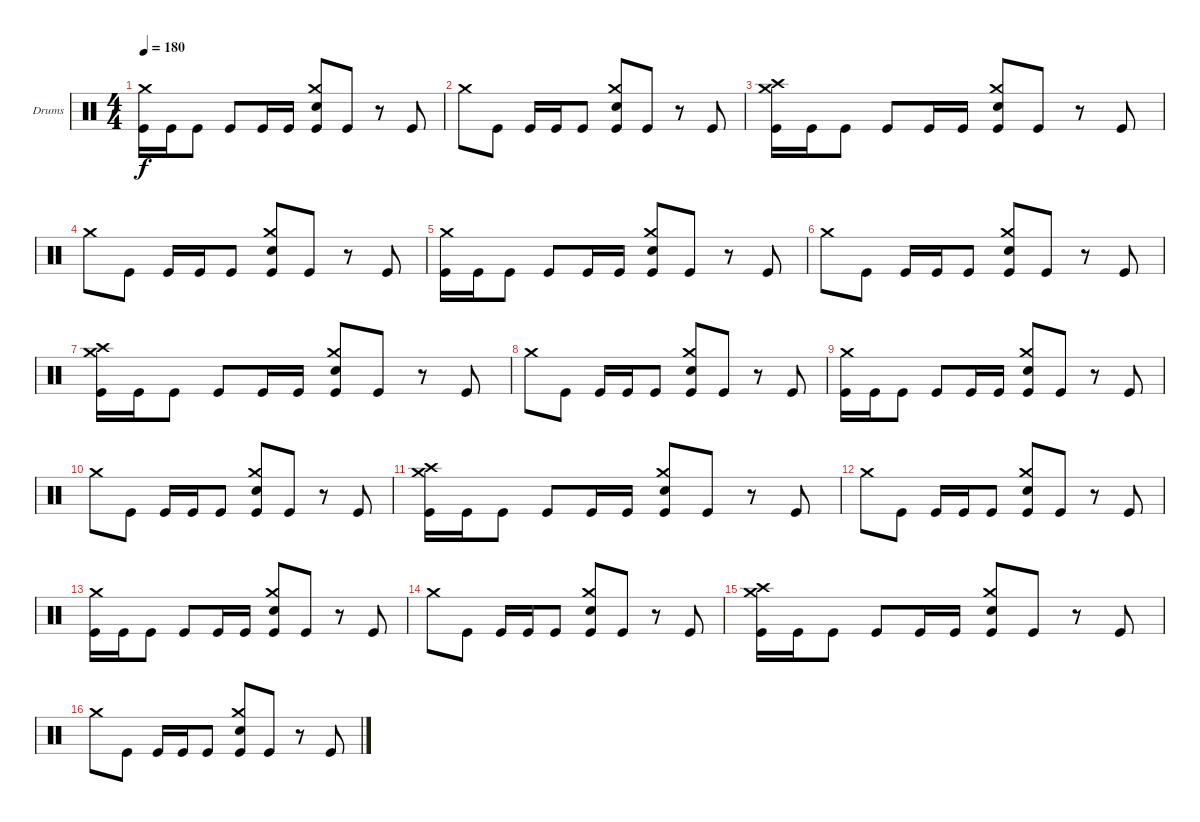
\bracketExtendMode groupsimilarinstruments
\firstSystemTrackNameOrientation horizontal
\otherSystemsTrackNameOrientation horizontal
\track ("Drumkit" "Drums") {instrument percussion}
\staff {score}
\articulation defaults
\ts (4 4)
\tempo 180
\clef neutral
\ks c
("Kick (hit)" "Crash medium (hit)").16{dy f} "Kick (hit)".16 "Kick (hit)".8 "Kick (hit)".8 "Kick (hit)".16 "Kick (hit)".16 ("Kick (hit)" "Crash medium (hit)" "Snare (hit) 2").8 "Kick (hit)".8 r.8 "Kick (hit)".8 |
"Crash medium (hit)".8 "Kick (hit)".8 "Kick (hit)".16 "Kick (hit)".16 "Kick (hit)".8 ("Kick (hit)" "Crash medium (hit)" "Snare (hit) 2").8 "Kick (hit)".8 r.8 "Kick (hit)".8 |
("Kick (hit)" "Crash medium (hit)" "Crash high (hit)").16 "Kick (hit)".16 "Kick (hit)".8 "Kick (hit)".8 "Kick (hit)".16 "Kick (hit)".16 ("Kick (hit)" "Crash medium (hit)" "Snare (hit) 2").8 "Kick (hit)".8 r.8 "Kick (hit)".8 |
"Crash medium (hit)".8 "Kick (hit)".8 "Kick (hit)".16 "Kick (hit)".16 "Kick (hit)".8 ("Kick (hit)" "Crash medium (hit)" "Snare (hit) 2").8 "Kick (hit)".8 r.8 "Kick (hit)".8 |
("Kick (hit)" "Crash medium (hit)").16 "Kick (hit)".16 "Kick (hit)".8 "Kick (hit)".8 "Kick (hit)".16 "Kick (hit)".16 ("Kick (hit)" "Crash medium (hit)" "Snare (hit) 2").8 "Kick (hit)".8 r.8 "Kick (hit)".8 |
"Crash medium (hit)".8 "Kick (hit)".8 "Kick (hit)".16 "Kick (hit)".16 "Kick (hit)".8 ("Kick (hit)" "Crash medium (hit)" "Snare (hit) 2").8 "Kick (hit)".8 r.8 "Kick (hit)".8 |
("Kick (hit)" "Crash medium (hit)" "Crash high (hit)").16 "Kick (hit)".16 "Kick (hit)".8 "Kick (hit)".8 "Kick (hit)".16 "Kick (hit)".16 ("Kick (hit)" "Crash medium (hit)" "Snare (hit) 2").8 "Kick (hit)".8 r.8 "Kick (hit)".8 |
"Crash medium (hit)".8 "Kick (hit)".8 "Kick (hit)".16 "Kick (hit)".16 "Kick (hit)".8 ("Kick (hit)" "Crash medium (hit)" "Snare (hit) 2").8 "Kick (hit)".8 r.8 "Kick (hit)".8 |
("Kick (hit)" "Crash medium (hit)").16 "Kick (hit)".16 "Kick (hit)".8 "Kick (hit)".8 "Kick (hit)".16 "Kick (hit)".16 ("Kick (hit)" "Crash medium (hit)" "Snare (hit) 2").8 "Kick (hit)".8 r.8 "Kick (hit)".8 |
"Crash medium (hit)".8 "Kick (hit)".8 "Kick (hit)".16 "Kick (hit)".16 "Kick (hit)".8 ("Kick (hit)" "Crash medium (hit)" "Snare (hit) 2").8 "Kick (hit)".8 r.8 "Kick (hit)".8 |
("Kick (hit)" "Crash medium (hit)" "Crash high (hit)").16 "Kick (hit)".16 "Kick (hit)".8 "Kick (hit)".8 "Kick (hit)".16 "Kick (hit)".16 ("Kick (hit)" "Crash medium (hit)" "Snare (hit) 2").8 "Kick (hit)".8 r.8 "Kick (hit)".8 |
"Crash medium (hit)".8 "Kick (hit)".8 "Kick (hit)".16 "Kick (hit)".16 "Kick (hit)".8 ("Kick (hit)" "Crash medium (hit)" "Snare (hit) 2").8 "Kick (hit)".8 r.8 "Kick (hit)".8 |
("Kick (hit)" "Crash medium (hit)").16 "Kick (hit)".16 "Kick (hit)".8 "Kick (hit)".8 "Kick (hit)".16 "Kick (hit)".16 ("Kick (hit)" "Crash medium (hit)" "Snare (hit) 2").8 "Kick (hit)".8 r.8 "Kick (hit)".8 |
"Crash medium (hit)".8 "Kick (hit)".8 "Kick (hit)".16 "Kick (hit)".16 "Kick (hit)".8 ("Kick (hit)" "Crash medium (hit)" "Snare (hit) 2").8 "Kick (hit)".8 r.8 "Kick (hit)".8 |
("Kick (hit)" "Crash medium (hit)" "Crash high (hit)").16 "Kick (hit)".16 "Kick (hit)".8 "Kick (hit)".8 "Kick (hit)".16 "Kick (hit)".16 ("Kick (hit)" "Crash medium (hit)" "Snare (hit) 2").8 "Kick (hit)".8 r.8 "Kick (hit)".8 |
"Crash medium (hit)".8 "Kick (hit)".8 "Kick (hit)".16 "Kick (hit)".16 "Kick (hit)".8 ("Kick (hit)" "Crash medium (hit)" "Snare (hit) 2").8 "Kick (hit)".8 r.8 "Kick (hit)".8
